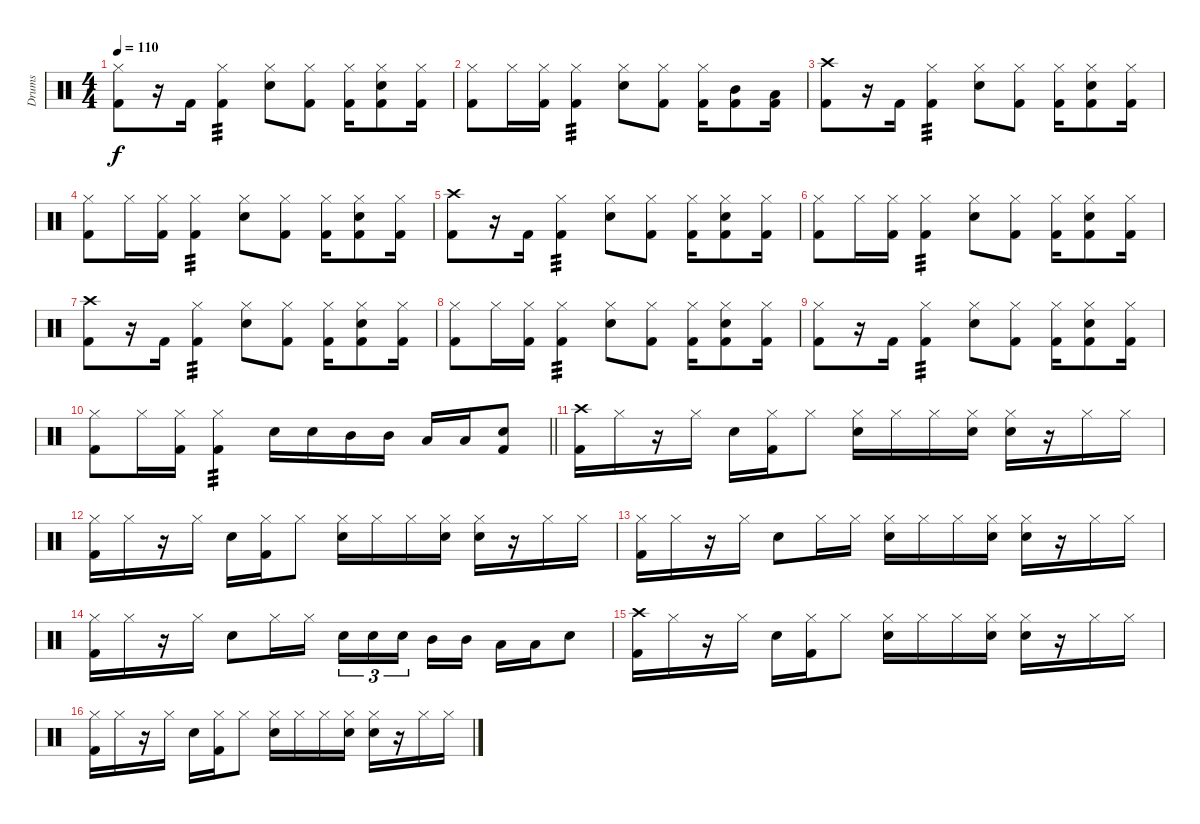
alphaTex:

\track ("Drums" "Drums") {instrument percussion}
\staff {score}
\articulation defaults
\ts (4 4)
\tempo 110
\clef neutral
\ks c
("Hi-Hat (closed)" "Kick (hit) 2").8{dy f} r.16 "Kick (hit) 2".16 ("Hi-Hat (closed)" "Kick (hit) 2").4{tp 3} ("Hi-Hat (closed)" "Snare (hit) 2").8 ("Hi-Hat (closed)" "Kick (hit) 2").8 ("Hi-Hat (closed)" "Kick (hit) 2").16 ("Hi-Hat (closed)" "Snare (hit) 2" "Kick (hit) 2").8 ("Hi-Hat (closed)" "Kick (hit) 2").16 |
("Hi-Hat (closed)" "Kick (hit) 2").8 "Hi-Hat (closed)".16 ("Hi-Hat (closed)" "Kick (hit) 2").16 ("Hi-Hat (closed)" "Kick (hit) 2").4{tp 3} ("Hi-Hat (closed)" "Snare (hit) 2").8 ("Hi-Hat (closed)" "Kick (hit) 2").8 ("Hi-Hat (closed)" "Kick (hit) 2").16 ("Mid Tom (hit)" "Kick (hit) 2").8 ("Low Tom (hit)" "Kick (hit) 2").16 |
("Crash high (hit)" "Kick (hit) 2").8 r.16 "Kick (hit) 2".16 ("Hi-Hat (closed)" "Kick (hit) 2").4{tp 3} ("Hi-Hat (closed)" "Snare (hit) 2").8 ("Hi-Hat (closed)" "Kick (hit) 2").8 ("Hi-Hat (closed)" "Kick (hit) 2").16 ("Hi-Hat (closed)" "Snare (hit) 2" "Kick (hit) 2").8 ("Hi-Hat (closed)" "Kick (hit) 2").16 |
("Hi-Hat (closed)" "Kick (hit) 2").8 "Hi-Hat (closed)".16 ("Hi-Hat (closed)" "Kick (hit) 2").16 ("Hi-Hat (closed)" "Kick (hit) 2").4{tp 3} ("Hi-Hat (closed)" "Snare (hit) 2").8 ("Hi-Hat (closed)" "Kick (hit) 2").8 ("Hi-Hat (closed)" "Kick (hit) 2").16 ("Hi-Hat (closed)" "Snare (hit) 2" "Kick (hit) 2").8 ("Hi-Hat (closed)" "Kick (hit) 2").16 |
("Crash high (hit)" "Kick (hit) 2").8 r.16 "Kick (hit) 2".16 ("Hi-Hat (closed)" "Kick (hit) 2").4{tp 3} ("Hi-Hat (closed)" "Snare (hit) 2").8 ("Hi-Hat (closed)" "Kick (hit) 2").8 ("Hi-Hat (closed)" "Kick (hit) 2").16 ("Hi-Hat (closed)" "Snare (hit) 2" "Kick (hit) 2").8 ("Hi-Hat (closed)" "Kick (hit) 2").16 |
("Hi-Hat (closed)" "Kick (hit) 2").8 "Hi-Hat (closed)".16 ("Hi-Hat (closed)" "Kick (hit) 2").16 ("Hi-Hat (closed)" "Kick (hit) 2").4{tp 3} ("Hi-Hat (closed)" "Snare (hit) 2").8 ("Hi-Hat (closed)" "Kick (hit) 2").8 ("Hi-Hat (closed)" "Kick (hit) 2").16 ("Hi-Hat (closed)" "Snare (hit) 2" "Kick (hit) 2").8 ("Hi-Hat (closed)" "Kick (hit) 2").16 |
("Crash high (hit)" "Kick (hit) 2").8 r.16 "Kick (hit) 2".16 ("Hi-Hat (closed)" "Kick (hit) 2").4{tp 3} ("Hi-Hat (closed)" "Snare (hit) 2").8 ("Hi-Hat (closed)" "Kick (hit) 2").8 ("Hi-Hat (closed)" "Kick (hit) 2").16 ("Hi-Hat (closed)" "Snare (hit) 2" "Kick (hit) 2").8 ("Hi-Hat (closed)" "Kick (hit) 2").16 |
("Hi-Hat (closed)" "Kick (hit) 2").8 "Hi-Hat (closed)".16 ("Hi-Hat (closed)" "Kick (hit) 2").16 ("Hi-Hat (closed)" "Kick (hit) 2").4{tp 3} ("Hi-Hat (closed)" "Snare (hit) 2").8 ("Hi-Hat (closed)" "Kick (hit) 2").8 ("Hi-Hat (closed)" "Kick (hit) 2").16 ("Hi-Hat (closed)" "Snare (hit) 2" "Kick (hit) 2").8 ("Hi-Hat (closed)" "Kick (hit) 2").16 |
("Hi-Hat (closed)" "Kick (hit) 2").8 r.16 "Kick (hit) 2".16 ("Hi-Hat (closed)" "Kick (hit) 2").4{tp 3} ("Hi-Hat (closed)" "Snare (hit) 2").8 ("Hi-Hat (closed)" "Kick (hit) 2").8 ("Hi-Hat (closed)" "Kick (hit) 2").16 ("Hi-Hat (closed)" "Snare (hit) 2" "Kick (hit) 2").8 ("Hi-Hat (closed)" "Kick (hit) 2").16 |
\barLineRight lightlight
("Hi-Hat (closed)" "Kick (hit) 2").8 "Hi-Hat (closed)".16 ("Hi-Hat (closed)" "Kick (hit) 2").16 ("Hi-Hat (closed)" "Kick (hit) 2").4{tp 3} "Snare (hit) 2".16 "Snare (hit) 2".16 "Mid Tom (hit)".16 "Mid Tom (hit)".16 "Low Tom (hit)".16 "Low Tom (hit)".16 ("Snare (hit) 2" "Kick (hit) 2").8 |
("Crash high (hit)" "Kick (hit) 2").16 "Hi-Hat (closed)".16 r.16 "Hi-Hat (closed)".16 "Snare (hit) 2".16 ("Hi-Hat (closed)" "Kick (hit) 2").16 "Hi-Hat (closed)".8 ("Hi-Hat (closed)" "Snare (hit) 2").16 "Hi-Hat (closed)".16 "Hi-Hat (closed)".16 ("Hi-Hat (closed)" "Snare (hit) 2").16 ("Hi-Hat (closed)" "Snare (hit) 2").16 r.16 "Hi-Hat (closed)".16 "Hi-Hat (closed)".16 |
("Hi-Hat (closed)" "Kick (hit) 2").16 "Hi-Hat (closed)".16 r.16 "Hi-Hat (closed)".16 "Snare (hit) 2".16 ("Hi-Hat (closed)" "Kick (hit) 2").16 "Hi-Hat (closed)".8 ("Hi-Hat (closed)" "Snare (hit) 2").16 "Hi-Hat (closed)".16 "Hi-Hat (closed)".16 ("Hi-Hat (closed)" "Snare (hit) 2").16 ("Hi-Hat (closed)" "Snare (hit) 2").16 r.16 "Hi-Hat (closed)".16 "Hi-Hat (closed)".16 |
("Hi-Hat (closed)" "Kick (hit) 2").16 "Hi-Hat (closed)".16 r.16 "Hi-Hat (closed)".16 "Snare (hit) 2".8 "Hi-Hat (closed)".16 "Hi-Hat (closed)".16 ("Hi-Hat (closed)" "Snare (hit) 2").16 "Hi-Hat (closed)".16 "Hi-Hat (closed)".16 ("Hi-Hat (closed)" "Snare (hit) 2").16 ("Hi-Hat (closed)" "Snare (hit) 2").16 r.16 "Hi-Hat (closed)".16 "Hi-Hat (closed)".16 |
("Hi-Hat (closed)" "Kick (hit) 2").16 "Hi-Hat (closed)".16 r.16 "Hi-Hat (closed)".16 "Snare (hit) 2".8 "Hi-Hat (closed)".16 "Hi-Hat (closed)".16 "Snare (hit) 2".16{tu (3 2)} "Snare (hit) 2".16{tu (3 2)} "Snare (hit) 2".16{tu (3 2) beam splitsecondary} "Mid Tom (hit)".16 "Mid Tom (hit)".16 "Low Tom (hit)".16 "Low Tom (hit)".16 "Snare (hit) 2".8 |
("Crash high (hit)" "Kick (hit) 2").16 "Hi-Hat (closed)".16 r.16 "Hi-Hat (closed)".16 "Snare (hit) 2".16 ("Hi-Hat (closed)" "Kick (hit) 2").16 "Hi-Hat (closed)".8 ("Hi-Hat (closed)" "Snare (hit) 2").16 "Hi-Hat (closed)".16 "Hi-Hat (closed)".16 ("Hi-Hat (closed)" "Snare (hit) 2").16 ("Hi-Hat (closed)" "Snare (hit) 2").16 r.16 "Hi-Hat (closed)".16 "Hi-Hat (closed)".16 |
("Hi-Hat (closed)" "Kick (hit) 2").16 "Hi-Hat (closed)".16 r.16 "Hi-Hat (closed)".16 "Snare (hit) 2".16 ("Hi-Hat (closed)" "Kick (hit) 2").16 "Hi-Hat (closed)".8 ("Hi-Hat (closed)" "Snare (hit) 2").16 "Hi-Hat (closed)".16 "Hi-Hat (closed)".16 ("Hi-Hat (closed)" "Snare (hit) 2").16 ("Hi-Hat (closed)" "Snare (hit) 2").16 r.16 "Hi-Hat (closed)".16 "Hi-Hat (closed)".16
